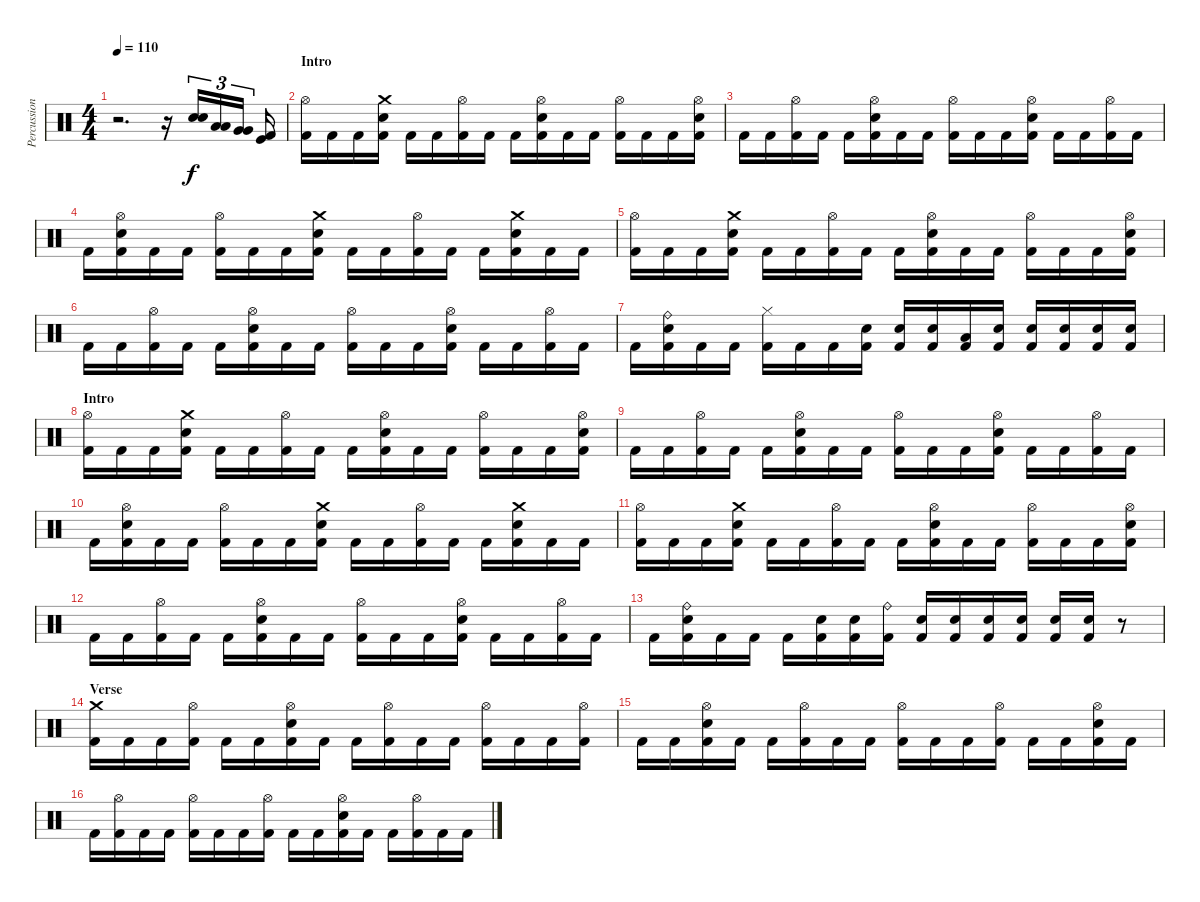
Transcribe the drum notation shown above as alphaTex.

\track ("Percussion" "Percussion") {instrument percussion}
\staff {score}
\articulation defaults
\ts (4 4)
\tempo 110
\clef neutral
\ks c
r.2{d dy f} r.16 ("Electric Snare (hit)" "Electric Snare (hit)").16{tu (3 2)} ("Low Tom (hit)" "Low Tom (hit)").16{tu (3 2)} ("Very Low Tom (hit)" "Very Low Tom (hit)").16{tu (3 2)} ("Kick (hit) 2" "Kick (hit)").16 |
\section ("" "Intro")
("Hi-Hat (open)" "Kick (hit) 2").16 "Kick (hit) 2".16 "Kick (hit) 2".16 ("Crash medium (hit)" "Electric Snare (hit)" "Kick (hit) 2").16 "Kick (hit) 2".16 "Kick (hit) 2".16 ("Hi-Hat (open)" "Kick (hit) 2").16 "Kick (hit) 2".16 "Kick (hit) 2".16 ("Hi-Hat (open)" "Electric Snare (hit)" "Kick (hit) 2").16 "Kick (hit) 2".16 "Kick (hit) 2".16 ("Hi-Hat (open)" "Kick (hit) 2").16 "Kick (hit) 2".16 "Kick (hit) 2".16 ("Hi-Hat (open)" "Electric Snare (hit)" "Kick (hit) 2").16 |
"Kick (hit) 2".16 "Kick (hit) 2".16 ("Hi-Hat (open)" "Kick (hit) 2").16 "Kick (hit) 2".16 "Kick (hit) 2".16 ("Hi-Hat (open)" "Electric Snare (hit)" "Kick (hit) 2").16 "Kick (hit) 2".16 "Kick (hit) 2".16 ("Hi-Hat (open)" "Kick (hit) 2").16 "Kick (hit) 2".16 "Kick (hit) 2".16 ("Hi-Hat (open)" "Electric Snare (hit)" "Kick (hit) 2").16 "Kick (hit) 2".16 "Kick (hit) 2".16 ("Hi-Hat (open)" "Kick (hit) 2").16 "Kick (hit) 2".16 |
"Kick (hit) 2".16 ("Hi-Hat (open)" "Electric Snare (hit)" "Kick (hit) 2").16 "Kick (hit) 2".16 "Kick (hit) 2".16 ("Hi-Hat (open)" "Kick (hit) 2").16 "Kick (hit) 2".16 "Kick (hit) 2".16 ("Crash medium (hit)" "Electric Snare (hit)" "Kick (hit) 2").16 "Kick (hit) 2".16 "Kick (hit) 2".16 ("Hi-Hat (open)" "Kick (hit) 2").16 "Kick (hit) 2".16 "Kick (hit) 2".16 ("Crash medium (hit)" "Electric Snare (hit)" "Kick (hit) 2").16 "Kick (hit) 2".16 "Kick (hit) 2".16 |
("Hi-Hat (open)" "Kick (hit) 2").16 "Kick (hit) 2".16 "Kick (hit) 2".16 ("Crash medium (hit)" "Electric Snare (hit)" "Kick (hit) 2").16 "Kick (hit) 2".16 "Kick (hit) 2".16 ("Hi-Hat (open)" "Kick (hit) 2").16 "Kick (hit) 2".16 "Kick (hit) 2".16 ("Hi-Hat (open)" "Electric Snare (hit)" "Kick (hit) 2").16 "Kick (hit) 2".16 "Kick (hit) 2".16 ("Hi-Hat (open)" "Kick (hit) 2").16 "Kick (hit) 2".16 "Kick (hit) 2".16 ("Hi-Hat (open)" "Electric Snare (hit)" "Kick (hit) 2").16 |
"Kick (hit) 2".16 "Kick (hit) 2".16 ("Hi-Hat (open)" "Kick (hit) 2").16 "Kick (hit) 2".16 "Kick (hit) 2".16 ("Hi-Hat (open)" "Electric Snare (hit)" "Kick (hit) 2").16 "Kick (hit) 2".16 "Kick (hit) 2".16 ("Hi-Hat (open)" "Kick (hit) 2").16 "Kick (hit) 2".16 "Kick (hit) 2".16 ("Hi-Hat (open)" "Electric Snare (hit)" "Kick (hit) 2").16 "Kick (hit) 2".16 "Kick (hit) 2".16 ("Hi-Hat (open)" "Kick (hit) 2").16 "Kick (hit) 2".16 |
"Kick (hit) 2".16 ("Ride (bell)" "Electric Snare (hit)" "Kick (hit) 2").16 "Kick (hit) 2".16 "Kick (hit) 2".16 ("Hi-Hat (closed)" "Kick (hit) 2").16 "Kick (hit) 2".16 "Kick (hit) 2".16 ("Electric Snare (hit)" "Kick (hit) 2").16 ("Electric Snare (hit)" "Kick (hit) 2").16 ("Electric Snare (hit)" "Kick (hit) 2").16 ("Low Tom (hit)" "Kick (hit) 2").16 ("Electric Snare (hit)" "Kick (hit) 2").16 ("Electric Snare (hit)" "Kick (hit) 2").16 ("Electric Snare (hit)" "Kick (hit) 2").16 ("Electric Snare (hit)" "Kick (hit) 2").16 ("Electric Snare (hit)" "Kick (hit) 2").16 |
\section ("" "Intro")
("Hi-Hat (open)" "Kick (hit) 2").16 "Kick (hit) 2".16 "Kick (hit) 2".16 ("Crash medium (hit)" "Electric Snare (hit)" "Kick (hit) 2").16 "Kick (hit) 2".16 "Kick (hit) 2".16 ("Hi-Hat (open)" "Kick (hit) 2").16 "Kick (hit) 2".16 "Kick (hit) 2".16 ("Hi-Hat (open)" "Electric Snare (hit)" "Kick (hit) 2").16 "Kick (hit) 2".16 "Kick (hit) 2".16 ("Hi-Hat (open)" "Kick (hit) 2").16 "Kick (hit) 2".16 "Kick (hit) 2".16 ("Hi-Hat (open)" "Electric Snare (hit)" "Kick (hit) 2").16 |
"Kick (hit) 2".16 "Kick (hit) 2".16 ("Hi-Hat (open)" "Kick (hit) 2").16 "Kick (hit) 2".16 "Kick (hit) 2".16 ("Hi-Hat (open)" "Electric Snare (hit)" "Kick (hit) 2").16 "Kick (hit) 2".16 "Kick (hit) 2".16 ("Hi-Hat (open)" "Kick (hit) 2").16 "Kick (hit) 2".16 "Kick (hit) 2".16 ("Hi-Hat (open)" "Electric Snare (hit)" "Kick (hit) 2").16 "Kick (hit) 2".16 "Kick (hit) 2".16 ("Hi-Hat (open)" "Kick (hit) 2").16 "Kick (hit) 2".16 |
"Kick (hit) 2".16 ("Hi-Hat (open)" "Electric Snare (hit)" "Kick (hit) 2").16 "Kick (hit) 2".16 "Kick (hit) 2".16 ("Hi-Hat (open)" "Kick (hit) 2").16 "Kick (hit) 2".16 "Kick (hit) 2".16 ("Crash medium (hit)" "Electric Snare (hit)" "Kick (hit) 2").16 "Kick (hit) 2".16 "Kick (hit) 2".16 ("Hi-Hat (open)" "Kick (hit) 2").16 "Kick (hit) 2".16 "Kick (hit) 2".16 ("Crash medium (hit)" "Electric Snare (hit)" "Kick (hit) 2").16 "Kick (hit) 2".16 "Kick (hit) 2".16 |
("Hi-Hat (open)" "Kick (hit) 2").16 "Kick (hit) 2".16 "Kick (hit) 2".16 ("Crash medium (hit)" "Electric Snare (hit)" "Kick (hit) 2").16 "Kick (hit) 2".16 "Kick (hit) 2".16 ("Hi-Hat (open)" "Kick (hit) 2").16 "Kick (hit) 2".16 "Kick (hit) 2".16 ("Hi-Hat (open)" "Electric Snare (hit)" "Kick (hit) 2").16 "Kick (hit) 2".16 "Kick (hit) 2".16 ("Hi-Hat (open)" "Kick (hit) 2").16 "Kick (hit) 2".16 "Kick (hit) 2".16 ("Hi-Hat (open)" "Electric Snare (hit)" "Kick (hit) 2").16 |
"Kick (hit) 2".16 "Kick (hit) 2".16 ("Hi-Hat (open)" "Kick (hit) 2").16 "Kick (hit) 2".16 "Kick (hit) 2".16 ("Hi-Hat (open)" "Electric Snare (hit)" "Kick (hit) 2").16 "Kick (hit) 2".16 "Kick (hit) 2".16 ("Hi-Hat (open)" "Kick (hit) 2").16 "Kick (hit) 2".16 "Kick (hit) 2".16 ("Hi-Hat (open)" "Electric Snare (hit)" "Kick (hit) 2").16 "Kick (hit) 2".16 "Kick (hit) 2".16 ("Hi-Hat (open)" "Kick (hit) 2").16 "Kick (hit) 2".16 |
"Kick (hit) 2".16 ("Ride (bell)" "Electric Snare (hit)" "Kick (hit) 2").16 "Kick (hit) 2".16 "Kick (hit) 2".16 "Kick (hit) 2".16 ("Electric Snare (hit)" "Kick (hit) 2").16 ("Electric Snare (hit)" "Kick (hit) 2").16 ("Ride (bell)" "Kick (hit) 2").16 ("Electric Snare (hit)" "Kick (hit) 2").16 ("Electric Snare (hit)" "Kick (hit) 2").16 ("Electric Snare (hit)" "Kick (hit) 2").16 ("Electric Snare (hit)" "Kick (hit) 2").16 ("Electric Snare (hit)" "Kick (hit) 2").16 ("Electric Snare (hit)" "Kick (hit) 2").16 r.8 |
\section ("" "Verse")
("Crash medium (hit)" "Kick (hit) 2").16 "Kick (hit) 2".16 "Kick (hit) 2".16 ("Hi-Hat (open)" "Kick (hit) 2").16 "Kick (hit) 2".16 "Kick (hit) 2".16 ("Hi-Hat (open)" "Electric Snare (hit)" "Kick (hit) 2").16 "Kick (hit) 2".16 "Kick (hit) 2".16 ("Hi-Hat (open)" "Kick (hit) 2").16 "Kick (hit) 2".16 "Kick (hit) 2".16 ("Hi-Hat (open)" "Kick (hit) 2").16 "Kick (hit) 2".16 "Kick (hit) 2".16 ("Hi-Hat (open)" "Kick (hit) 2").16 |
"Kick (hit) 2".16 "Kick (hit) 2".16 ("Hi-Hat (open)" "Electric Snare (hit)" "Kick (hit) 2").16 "Kick (hit) 2".16 "Kick (hit) 2".16 ("Hi-Hat (open)" "Kick (hit) 2").16 "Kick (hit) 2".16 "Kick (hit) 2".16 ("Hi-Hat (open)" "Kick (hit) 2").16 "Kick (hit) 2".16 "Kick (hit) 2".16 ("Hi-Hat (open)" "Kick (hit) 2").16 "Kick (hit) 2".16 "Kick (hit) 2".16 ("Hi-Hat (open)" "Electric Snare (hit)" "Kick (hit) 2").16 "Kick (hit) 2".16 |
"Kick (hit) 2".16 ("Hi-Hat (open)" "Kick (hit) 2").16 "Kick (hit) 2".16 "Kick (hit) 2".16 ("Hi-Hat (open)" "Kick (hit) 2").16 "Kick (hit) 2".16 "Kick (hit) 2".16 ("Hi-Hat (open)" "Kick (hit) 2").16 "Kick (hit) 2".16 "Kick (hit) 2".16 ("Hi-Hat (open)" "Electric Snare (hit)" "Kick (hit) 2").16 "Kick (hit) 2".16 "Kick (hit) 2".16 ("Hi-Hat (open)" "Kick (hit) 2").16 "Kick (hit) 2".16 "Kick (hit) 2".16
